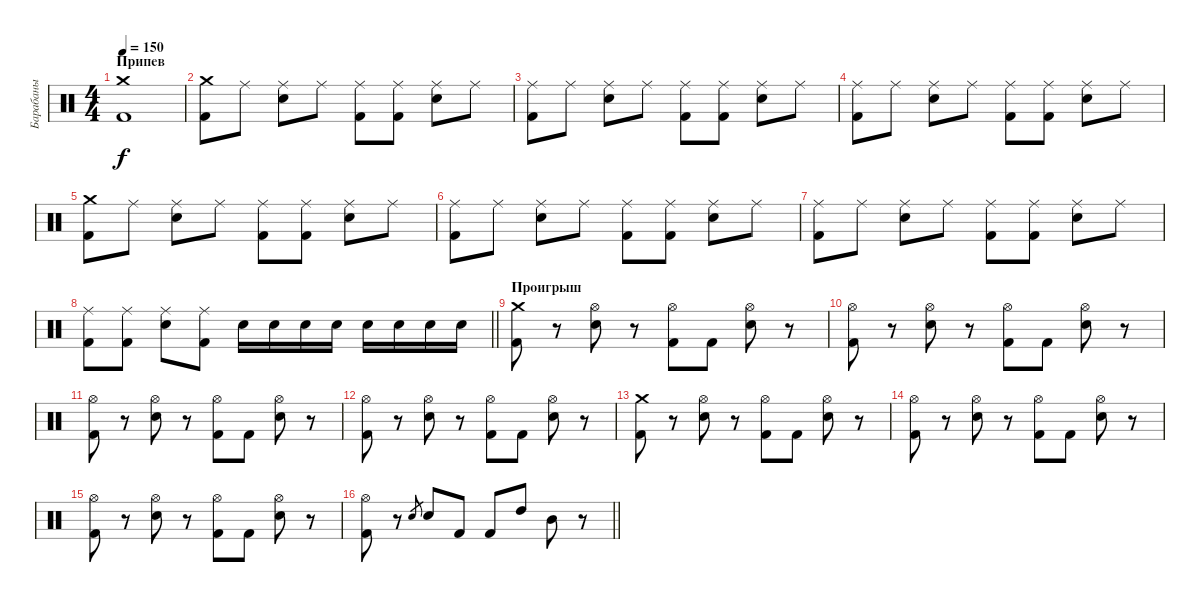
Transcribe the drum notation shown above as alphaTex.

\track ("Барабаны" "Барабаны") {instrument percussion}
\staff {score}
\articulation defaults
\ts (4 4)
\section ("" "Припев ")
\tempo 150
\clef neutral
\ks c
("Crash medium (hit)" "Kick (hit) 2").1{dy f} |
("Crash medium (hit)" "Kick (hit) 2").8 "Ride (middle)".8 ("Ride (middle)" "Electric Snare (hit)").8 "Ride (middle)".8 ("Ride (middle)" "Kick (hit) 2").8 ("Ride (middle)" "Kick (hit) 2").8 ("Ride (middle)" "Electric Snare (hit)").8 "Ride (middle)".8 |
("Ride (middle)" "Kick (hit) 2").8 "Ride (middle)".8 ("Ride (middle)" "Electric Snare (hit)").8 "Ride (middle)".8 ("Ride (middle)" "Kick (hit) 2").8 ("Ride (middle)" "Kick (hit) 2").8 ("Ride (middle)" "Electric Snare (hit)").8 "Ride (middle)".8 |
("Ride (middle)" "Kick (hit) 2").8 "Ride (middle)".8 ("Ride (middle)" "Electric Snare (hit)").8 "Ride (middle)".8 ("Ride (middle)" "Kick (hit) 2").8 ("Ride (middle)" "Kick (hit) 2").8 ("Ride (middle)" "Electric Snare (hit)").8 "Ride (middle)".8 |
("Crash medium (hit)" "Kick (hit) 2").8 "Ride (middle)".8 ("Ride (middle)" "Electric Snare (hit)").8 "Ride (middle)".8 ("Ride (middle)" "Kick (hit) 2").8 ("Ride (middle)" "Kick (hit) 2").8 ("Ride (middle)" "Electric Snare (hit)").8 "Ride (middle)".8 |
("Ride (middle)" "Kick (hit) 2").8 "Ride (middle)".8 ("Ride (middle)" "Electric Snare (hit)").8 "Ride (middle)".8 ("Ride (middle)" "Kick (hit) 2").8 ("Ride (middle)" "Kick (hit) 2").8 ("Ride (middle)" "Electric Snare (hit)").8 "Ride (middle)".8 |
("Ride (middle)" "Kick (hit) 2").8 "Ride (middle)".8 ("Ride (middle)" "Electric Snare (hit)").8 "Ride (middle)".8 ("Ride (middle)" "Kick (hit) 2").8 ("Ride (middle)" "Kick (hit) 2").8 ("Ride (middle)" "Electric Snare (hit)").8 "Ride (middle)".8 |
\barLineRight lightlight
("Ride (middle)" "Kick (hit) 2").8 ("Ride (middle)" "Kick (hit) 2").8 ("Ride (middle)" "Electric Snare (hit)").8 ("Ride (middle)" "Kick (hit) 2").8 "Electric Snare (hit)".16 "Electric Snare (hit)".16 "Electric Snare (hit)".16 "Electric Snare (hit)".16 "Electric Snare (hit)".16 "Electric Snare (hit)".16 "Electric Snare (hit)".16 "Electric Snare (hit)".16 |
\section ("" "Проигрыш")
("Crash medium (hit)" "Kick (hit) 2").8 r.8 ("Hi-Hat (open)" "Electric Snare (hit)").8 r.8 ("Hi-Hat (open)" "Kick (hit) 2").8 "Kick (hit) 2".8 ("Hi-Hat (open)" "Electric Snare (hit)").8 r.8 |
("Hi-Hat (open)" "Kick (hit) 2").8 r.8 ("Hi-Hat (open)" "Electric Snare (hit)").8 r.8 ("Hi-Hat (open)" "Kick (hit) 2").8 "Kick (hit) 2".8 ("Hi-Hat (open)" "Electric Snare (hit)").8 r.8 |
("Hi-Hat (open)" "Kick (hit) 2").8 r.8 ("Hi-Hat (open)" "Electric Snare (hit)").8 r.8 ("Hi-Hat (open)" "Kick (hit) 2").8 "Kick (hit) 2".8 ("Hi-Hat (open)" "Electric Snare (hit)").8 r.8 |
("Hi-Hat (open)" "Kick (hit) 2").8 r.8 ("Hi-Hat (open)" "Electric Snare (hit)").8 r.8 ("Hi-Hat (open)" "Kick (hit) 2").8 "Kick (hit) 2".8 ("Hi-Hat (open)" "Electric Snare (hit)").8 r.8 |
("Crash medium (hit)" "Kick (hit) 2").8 r.8 ("Hi-Hat (open)" "Electric Snare (hit)").8 r.8 ("Hi-Hat (open)" "Kick (hit) 2").8 "Kick (hit) 2".8 ("Hi-Hat (open)" "Electric Snare (hit)").8 r.8 |
("Hi-Hat (open)" "Kick (hit) 2").8 r.8 ("Hi-Hat (open)" "Electric Snare (hit)").8 r.8 ("Hi-Hat (open)" "Kick (hit) 2").8 "Kick (hit) 2".8 ("Hi-Hat (open)" "Electric Snare (hit)").8 r.8 |
("Hi-Hat (open)" "Kick (hit) 2").8 r.8 ("Hi-Hat (open)" "Electric Snare (hit)").8 r.8 ("Hi-Hat (open)" "Kick (hit) 2").8 "Kick (hit) 2".8 ("Hi-Hat (open)" "Electric Snare (hit)").8 r.8 |
\barLineRight lightlight
("Hi-Hat (open)" "Kick (hit) 2").8 r.8 "Electric Snare (hit)".8{gr} "Electric Snare (hit)".8 "Kick (hit) 2".8 "Kick (hit) 2".8 "High Tom (hit)".8 "Mid Tom (hit)".8 r.8
